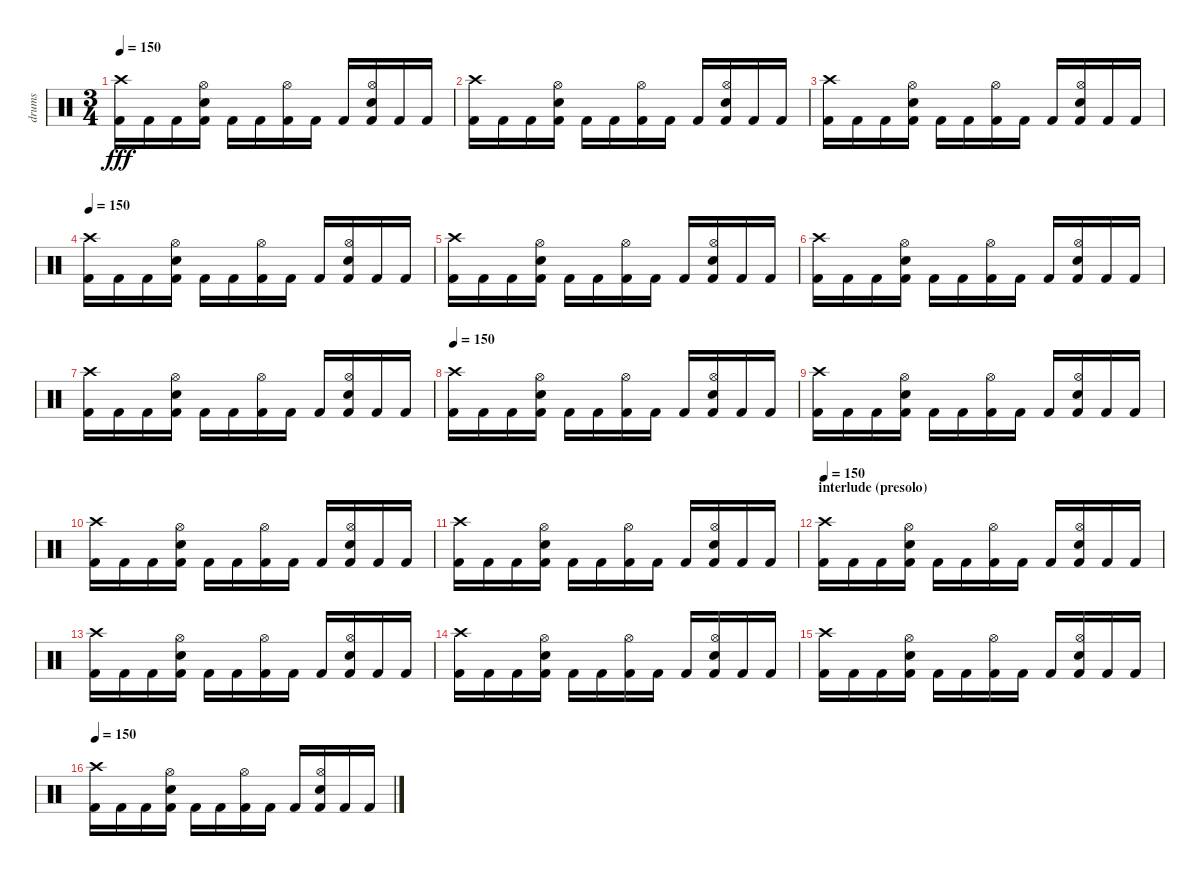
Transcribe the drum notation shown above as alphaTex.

\track ("drums" "drums") {instrument percussion}
\staff {score}
\articulation defaults
\ts (3 4)
\tempo 150
\clef neutral
\ks c
("Crash high (hit)" "Kick (hit) 2").16{dy fff} "Kick (hit) 2".16 "Kick (hit) 2".16 ("Hi-Hat (open)" "Snare (hit) 2" "Kick (hit) 2").16 "Kick (hit) 2".16 "Kick (hit) 2".16 ("Hi-Hat (open)" "Kick (hit) 2").16 "Kick (hit) 2".16 "Kick (hit) 2".16 ("Hi-Hat (open)" "Snare (hit) 2" "Kick (hit) 2").16 "Kick (hit) 2".16 "Kick (hit) 2".16 |
("Crash high (hit)" "Kick (hit) 2").16 "Kick (hit) 2".16 "Kick (hit) 2".16 ("Hi-Hat (open)" "Snare (hit) 2" "Kick (hit) 2").16 "Kick (hit) 2".16 "Kick (hit) 2".16 ("Hi-Hat (open)" "Kick (hit) 2").16 "Kick (hit) 2".16 "Kick (hit) 2".16 ("Hi-Hat (open)" "Snare (hit) 2" "Kick (hit) 2").16 "Kick (hit) 2".16 "Kick (hit) 2".16 |
("Crash high (hit)" "Kick (hit) 2").16 "Kick (hit) 2".16 "Kick (hit) 2".16 ("Hi-Hat (open)" "Snare (hit) 2" "Kick (hit) 2").16 "Kick (hit) 2".16 "Kick (hit) 2".16 ("Hi-Hat (open)" "Kick (hit) 2").16 "Kick (hit) 2".16 "Kick (hit) 2".16 ("Hi-Hat (open)" "Snare (hit) 2" "Kick (hit) 2").16 "Kick (hit) 2".16 "Kick (hit) 2".16 |
\tempo 150
("Crash high (hit)" "Kick (hit) 2").16 "Kick (hit) 2".16 "Kick (hit) 2".16 ("Hi-Hat (open)" "Snare (hit) 2" "Kick (hit) 2").16 "Kick (hit) 2".16 "Kick (hit) 2".16 ("Hi-Hat (open)" "Kick (hit) 2").16 "Kick (hit) 2".16 "Kick (hit) 2".16 ("Hi-Hat (open)" "Snare (hit) 2" "Kick (hit) 2").16 "Kick (hit) 2".16 "Kick (hit) 2".16 |
("Crash high (hit)" "Kick (hit) 2").16 "Kick (hit) 2".16 "Kick (hit) 2".16 ("Hi-Hat (open)" "Snare (hit) 2" "Kick (hit) 2").16 "Kick (hit) 2".16 "Kick (hit) 2".16 ("Hi-Hat (open)" "Kick (hit) 2").16 "Kick (hit) 2".16 "Kick (hit) 2".16 ("Hi-Hat (open)" "Snare (hit) 2" "Kick (hit) 2").16 "Kick (hit) 2".16 "Kick (hit) 2".16 |
("Crash high (hit)" "Kick (hit) 2").16 "Kick (hit) 2".16 "Kick (hit) 2".16 ("Hi-Hat (open)" "Snare (hit) 2" "Kick (hit) 2").16 "Kick (hit) 2".16 "Kick (hit) 2".16 ("Hi-Hat (open)" "Kick (hit) 2").16 "Kick (hit) 2".16 "Kick (hit) 2".16 ("Hi-Hat (open)" "Snare (hit) 2" "Kick (hit) 2").16 "Kick (hit) 2".16 "Kick (hit) 2".16 |
("Crash high (hit)" "Kick (hit) 2").16 "Kick (hit) 2".16 "Kick (hit) 2".16 ("Hi-Hat (open)" "Snare (hit) 2" "Kick (hit) 2").16 "Kick (hit) 2".16 "Kick (hit) 2".16 ("Hi-Hat (open)" "Kick (hit) 2").16 "Kick (hit) 2".16 "Kick (hit) 2".16 ("Hi-Hat (open)" "Snare (hit) 2" "Kick (hit) 2").16 "Kick (hit) 2".16 "Kick (hit) 2".16 |
\tempo 150
("Crash high (hit)" "Kick (hit) 2").16 "Kick (hit) 2".16 "Kick (hit) 2".16 ("Hi-Hat (open)" "Snare (hit) 2" "Kick (hit) 2").16 "Kick (hit) 2".16 "Kick (hit) 2".16 ("Hi-Hat (open)" "Kick (hit) 2").16 "Kick (hit) 2".16 "Kick (hit) 2".16 ("Hi-Hat (open)" "Snare (hit) 2" "Kick (hit) 2").16 "Kick (hit) 2".16 "Kick (hit) 2".16 |
("Crash high (hit)" "Kick (hit) 2").16 "Kick (hit) 2".16 "Kick (hit) 2".16 ("Hi-Hat (open)" "Snare (hit) 2" "Kick (hit) 2").16 "Kick (hit) 2".16 "Kick (hit) 2".16 ("Hi-Hat (open)" "Kick (hit) 2").16 "Kick (hit) 2".16 "Kick (hit) 2".16 ("Hi-Hat (open)" "Snare (hit) 2" "Kick (hit) 2").16 "Kick (hit) 2".16 "Kick (hit) 2".16 |
("Crash high (hit)" "Kick (hit) 2").16 "Kick (hit) 2".16 "Kick (hit) 2".16 ("Hi-Hat (open)" "Snare (hit) 2" "Kick (hit) 2").16 "Kick (hit) 2".16 "Kick (hit) 2".16 ("Hi-Hat (open)" "Kick (hit) 2").16 "Kick (hit) 2".16 "Kick (hit) 2".16 ("Hi-Hat (open)" "Snare (hit) 2" "Kick (hit) 2").16 "Kick (hit) 2".16 "Kick (hit) 2".16 |
("Crash high (hit)" "Kick (hit) 2").16 "Kick (hit) 2".16 "Kick (hit) 2".16 ("Hi-Hat (open)" "Snare (hit) 2" "Kick (hit) 2").16 "Kick (hit) 2".16 "Kick (hit) 2".16 ("Hi-Hat (open)" "Kick (hit) 2").16 "Kick (hit) 2".16 "Kick (hit) 2".16 ("Hi-Hat (open)" "Snare (hit) 2" "Kick (hit) 2").16 "Kick (hit) 2".16 "Kick (hit) 2".16 |
\section ("" "interlude (presolo)")
\tempo 150
("Crash high (hit)" "Kick (hit) 2").16 "Kick (hit) 2".16 "Kick (hit) 2".16 ("Hi-Hat (open)" "Snare (hit) 2" "Kick (hit) 2").16 "Kick (hit) 2".16 "Kick (hit) 2".16 ("Hi-Hat (open)" "Kick (hit) 2").16 "Kick (hit) 2".16 "Kick (hit) 2".16 ("Hi-Hat (open)" "Snare (hit) 2" "Kick (hit) 2").16 "Kick (hit) 2".16 "Kick (hit) 2".16 |
("Crash high (hit)" "Kick (hit) 2").16 "Kick (hit) 2".16 "Kick (hit) 2".16 ("Hi-Hat (open)" "Snare (hit) 2" "Kick (hit) 2").16 "Kick (hit) 2".16 "Kick (hit) 2".16 ("Hi-Hat (open)" "Kick (hit) 2").16 "Kick (hit) 2".16 "Kick (hit) 2".16 ("Hi-Hat (open)" "Snare (hit) 2" "Kick (hit) 2").16 "Kick (hit) 2".16 "Kick (hit) 2".16 |
("Crash high (hit)" "Kick (hit) 2").16 "Kick (hit) 2".16 "Kick (hit) 2".16 ("Hi-Hat (open)" "Snare (hit) 2" "Kick (hit) 2").16 "Kick (hit) 2".16 "Kick (hit) 2".16 ("Hi-Hat (open)" "Kick (hit) 2").16 "Kick (hit) 2".16 "Kick (hit) 2".16 ("Hi-Hat (open)" "Snare (hit) 2" "Kick (hit) 2").16 "Kick (hit) 2".16 "Kick (hit) 2".16 |
("Crash high (hit)" "Kick (hit) 2").16 "Kick (hit) 2".16 "Kick (hit) 2".16 ("Hi-Hat (open)" "Snare (hit) 2" "Kick (hit) 2").16 "Kick (hit) 2".16 "Kick (hit) 2".16 ("Hi-Hat (open)" "Kick (hit) 2").16 "Kick (hit) 2".16 "Kick (hit) 2".16 ("Hi-Hat (open)" "Snare (hit) 2" "Kick (hit) 2").16 "Kick (hit) 2".16 "Kick (hit) 2".16 |
\tempo 150
("Crash high (hit)" "Kick (hit) 2").16 "Kick (hit) 2".16 "Kick (hit) 2".16 ("Hi-Hat (open)" "Snare (hit) 2" "Kick (hit) 2").16 "Kick (hit) 2".16 "Kick (hit) 2".16 ("Hi-Hat (open)" "Kick (hit) 2").16 "Kick (hit) 2".16 "Kick (hit) 2".16 ("Hi-Hat (open)" "Snare (hit) 2" "Kick (hit) 2").16 "Kick (hit) 2".16 "Kick (hit) 2".16
